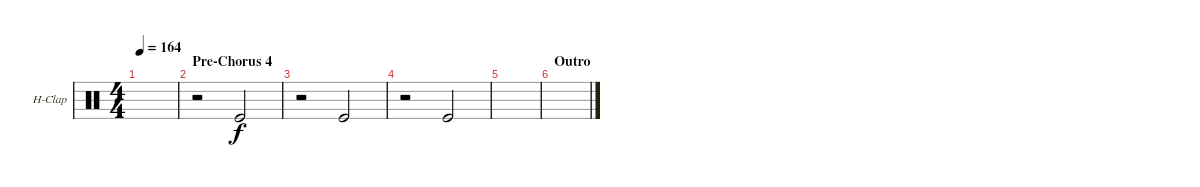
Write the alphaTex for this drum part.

\defaultSystemsLayout 4
\bracketExtendMode groupsimilarinstruments
\firstSystemTrackNameOrientation horizontal
\otherSystemsTrackNameOrientation horizontal
\track ("Hand Clap" "H-Clap") {instrument percussion}
\staff {score}
\articulation defaults
\ts (4 4)
\tempo 164
\clef neutral
\ks c
|
\section ("" "Pre-Chorus 4")
r.2 "Kick (hit)".2 |
r.2 "Kick (hit)".2 |
r.2 "Kick (hit)".2 |
|
\section ("" "Outro")
